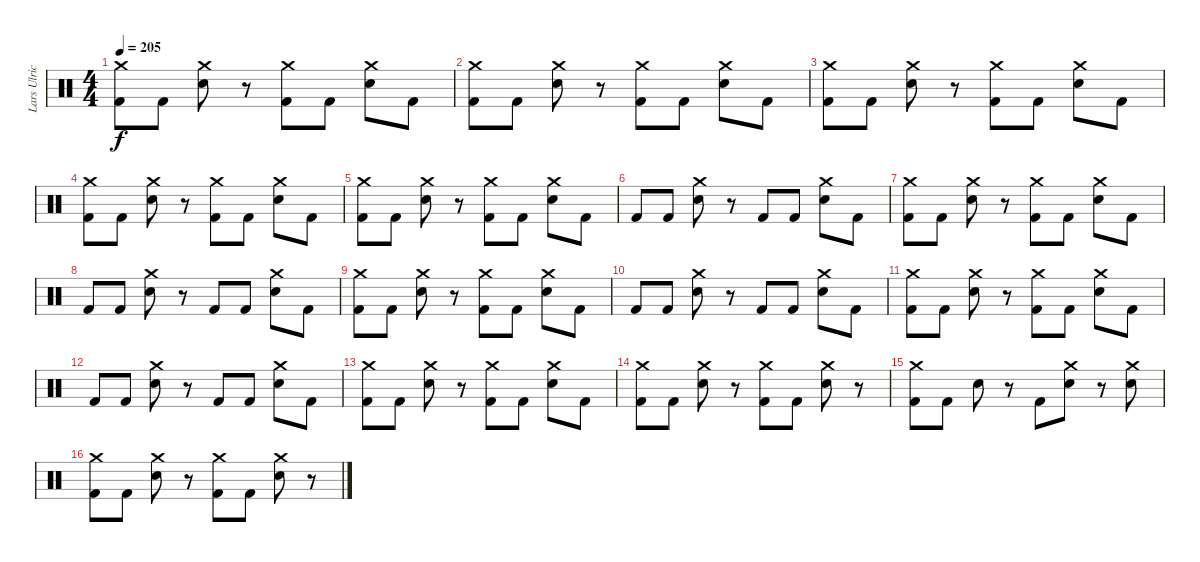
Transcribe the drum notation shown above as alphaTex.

\track ("Lars Ulrich" "Lars Ulric") {instrument percussion}
\staff {score}
\articulation defaults
\ts (4 4)
\tempo 205
\clef neutral
\ks c
("Crash medium (hit)" "Kick (hit) 2").8{dy f} "Kick (hit) 2".8 ("Crash medium (hit)" "Electric Snare (hit)").8 r.8 ("Crash medium (hit)" "Kick (hit) 2").8 "Kick (hit) 2".8 ("Crash medium (hit)" "Electric Snare (hit)").8 "Kick (hit) 2".8 |
("Crash medium (hit)" "Kick (hit) 2").8 "Kick (hit) 2".8 ("Crash medium (hit)" "Electric Snare (hit)").8 r.8 ("Crash medium (hit)" "Kick (hit) 2").8 "Kick (hit) 2".8 ("Crash medium (hit)" "Electric Snare (hit)").8 "Kick (hit) 2".8 |
("Crash medium (hit)" "Kick (hit) 2").8 "Kick (hit) 2".8 ("Crash medium (hit)" "Electric Snare (hit)").8 r.8 ("Crash medium (hit)" "Kick (hit) 2").8 "Kick (hit) 2".8 ("Crash medium (hit)" "Electric Snare (hit)").8 "Kick (hit) 2".8 |
("Crash medium (hit)" "Kick (hit) 2").8 "Kick (hit) 2".8 ("Crash medium (hit)" "Electric Snare (hit)").8 r.8 ("Crash medium (hit)" "Kick (hit) 2").8 "Kick (hit) 2".8 ("Crash medium (hit)" "Electric Snare (hit)").8 "Kick (hit) 2".8 |
("Crash medium (hit)" "Kick (hit) 2").8 "Kick (hit) 2".8 ("Crash medium (hit)" "Electric Snare (hit)").8 r.8 ("Crash medium (hit)" "Kick (hit) 2").8 "Kick (hit) 2".8 ("Crash medium (hit)" "Electric Snare (hit)").8 "Kick (hit) 2".8 |
"Kick (hit) 2".8 "Kick (hit) 2".8 ("Crash medium (hit)" "Electric Snare (hit)").8 r.8 "Kick (hit) 2".8 "Kick (hit) 2".8 ("Crash medium (hit)" "Electric Snare (hit)").8 "Kick (hit) 2".8 |
("Crash medium (hit)" "Kick (hit) 2").8 "Kick (hit) 2".8 ("Crash medium (hit)" "Electric Snare (hit)").8 r.8 ("Crash medium (hit)" "Kick (hit) 2").8 "Kick (hit) 2".8 ("Crash medium (hit)" "Electric Snare (hit)").8 "Kick (hit) 2".8 |
"Kick (hit) 2".8 "Kick (hit) 2".8 ("Crash medium (hit)" "Electric Snare (hit)").8 r.8 "Kick (hit) 2".8 "Kick (hit) 2".8 ("Crash medium (hit)" "Electric Snare (hit)").8 "Kick (hit) 2".8 |
("Crash medium (hit)" "Kick (hit) 2").8 "Kick (hit) 2".8 ("Crash medium (hit)" "Electric Snare (hit)").8 r.8 ("Crash medium (hit)" "Kick (hit) 2").8 "Kick (hit) 2".8 ("Crash medium (hit)" "Electric Snare (hit)").8 "Kick (hit) 2".8 |
"Kick (hit) 2".8 "Kick (hit) 2".8 ("Crash medium (hit)" "Electric Snare (hit)").8 r.8 "Kick (hit) 2".8 "Kick (hit) 2".8 ("Crash medium (hit)" "Electric Snare (hit)").8 "Kick (hit) 2".8 |
("Crash medium (hit)" "Kick (hit) 2").8 "Kick (hit) 2".8 ("Crash medium (hit)" "Electric Snare (hit)").8 r.8 ("Crash medium (hit)" "Kick (hit) 2").8 "Kick (hit) 2".8 ("Crash medium (hit)" "Electric Snare (hit)").8 "Kick (hit) 2".8 |
"Kick (hit) 2".8 "Kick (hit) 2".8 ("Crash medium (hit)" "Electric Snare (hit)").8 r.8 "Kick (hit) 2".8 "Kick (hit) 2".8 ("Crash medium (hit)" "Electric Snare (hit)").8 "Kick (hit) 2".8 |
("Crash medium (hit)" "Kick (hit) 2").8 "Kick (hit) 2".8 ("Crash medium (hit)" "Electric Snare (hit)").8 r.8 ("Crash medium (hit)" "Kick (hit) 2").8 "Kick (hit) 2".8 ("Crash medium (hit)" "Electric Snare (hit)").8 "Kick (hit) 2".8 |
("Crash medium (hit)" "Kick (hit) 2").8 "Kick (hit) 2".8 ("Crash medium (hit)" "Electric Snare (hit)").8 r.8 ("Crash medium (hit)" "Kick (hit) 2").8 "Kick (hit) 2".8 ("Crash medium (hit)" "Electric Snare (hit)").8 r.8 |
("Crash medium (hit)" "Kick (hit) 2").8 "Kick (hit) 2".8 "Electric Snare (hit)".8 r.8 "Kick (hit) 2".8 ("Crash medium (hit)" "Electric Snare (hit)").8 r.8 ("Crash medium (hit)" "Electric Snare (hit)").8 |
("Crash medium (hit)" "Kick (hit) 2").8 "Kick (hit) 2".8 ("Crash medium (hit)" "Electric Snare (hit)").8 r.8 ("Crash medium (hit)" "Kick (hit) 2").8 "Kick (hit) 2".8 ("Crash medium (hit)" "Electric Snare (hit)").8 r.8
